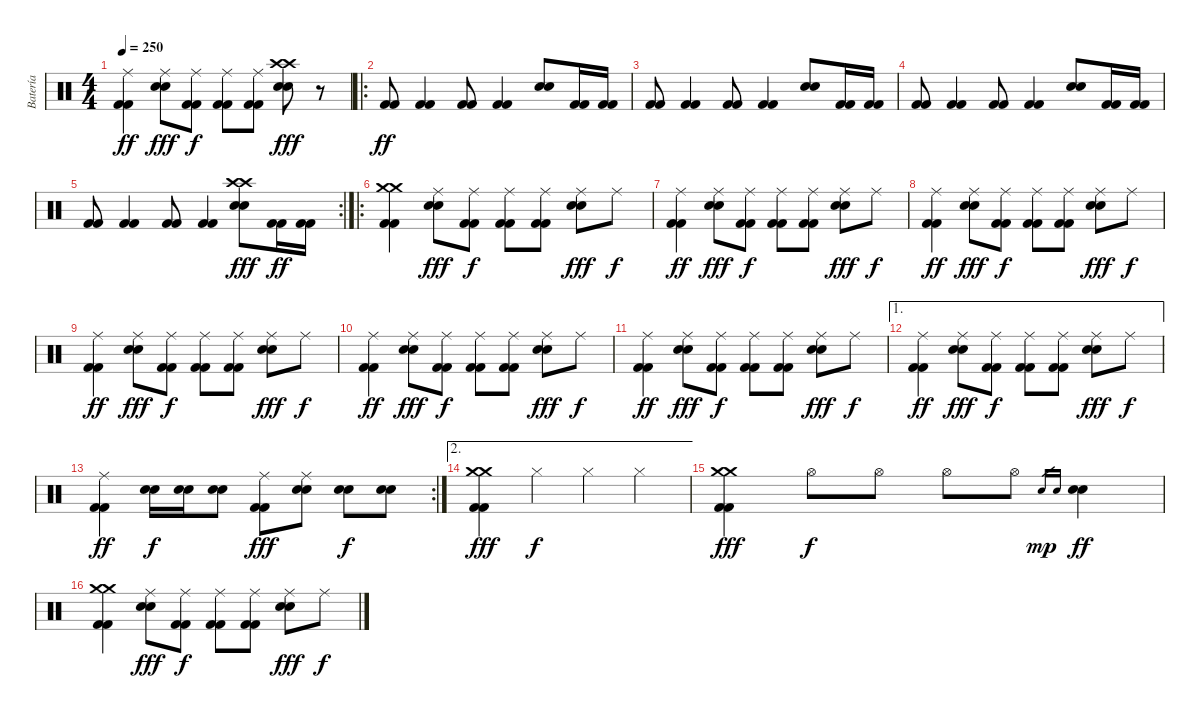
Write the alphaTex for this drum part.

\track ("Batería" "Batería") {instrument percussion}
\staff {score}
\articulation defaults
\ts (4 4)
\tempo 250
\clef neutral
\ks c
("Ride (middle)" "Kick (hit) 2" "Kick (hit) 2").4{dy ff} ("Ride (middle)" "Electric Snare (hit)" "Electric Snare (hit)").8{dy fff} ("Ride (middle)" "Kick (hit) 2" "Kick (hit) 2").8{dy f} ("Ride (middle)" "Kick (hit) 2" "Kick (hit) 2").8 ("Ride (middle)" "Kick (hit) 2" "Kick (hit) 2").8 ("Crash high (hit)" "Crash high (hit)" "Electric Snare (hit)" "Electric Snare (hit)").8{dy fff} r.8 |
\ro
("Kick (hit) 2" "Kick (hit) 2").8{dy ff} ("Kick (hit) 2" "Kick (hit) 2").4 ("Kick (hit) 2" "Kick (hit) 2").8 ("Kick (hit) 2" "Kick (hit) 2").4 ("Electric Snare (hit)" "Electric Snare (hit)").8 ("Kick (hit) 2" "Kick (hit) 2").16 ("Kick (hit) 2" "Kick (hit) 2").16 |
("Kick (hit) 2" "Kick (hit) 2").8 ("Kick (hit) 2" "Kick (hit) 2").4 ("Kick (hit) 2" "Kick (hit) 2").8 ("Kick (hit) 2" "Kick (hit) 2").4 ("Electric Snare (hit)" "Electric Snare (hit)").8 ("Kick (hit) 2" "Kick (hit) 2").16 ("Kick (hit) 2" "Kick (hit) 2").16 |
("Kick (hit) 2" "Kick (hit) 2").8 ("Kick (hit) 2" "Kick (hit) 2").4 ("Kick (hit) 2" "Kick (hit) 2").8 ("Kick (hit) 2" "Kick (hit) 2").4 ("Electric Snare (hit)" "Electric Snare (hit)").8 ("Kick (hit) 2" "Kick (hit) 2").16 ("Kick (hit) 2" "Kick (hit) 2").16 |
\rc 2
("Kick (hit) 2" "Kick (hit) 2").8 ("Kick (hit) 2" "Kick (hit) 2").4 ("Kick (hit) 2" "Kick (hit) 2").8 ("Kick (hit) 2" "Kick (hit) 2").4 ("Crash high (hit)" "Crash high (hit)" "Electric Snare (hit)" "Electric Snare (hit)").8{dy fff} ("Kick (hit) 2" "Kick (hit) 2").16{dy ff} ("Kick (hit) 2" "Kick (hit) 2").16 |
\ro
("Crash medium (hit)" "Crash medium (hit)" "Kick (hit) 2" "Kick (hit) 2").4 ("Ride (middle)" "Electric Snare (hit)" "Electric Snare (hit)").8{dy fff} ("Ride (middle)" "Kick (hit) 2" "Kick (hit) 2").8{dy f} ("Ride (middle)" "Kick (hit) 2" "Kick (hit) 2").8 ("Ride (middle)" "Kick (hit) 2" "Kick (hit) 2").8 ("Ride (middle)" "Electric Snare (hit)" "Electric Snare (hit)").8{dy fff} "Ride (middle)".8{dy f} |
("Ride (middle)" "Kick (hit) 2" "Kick (hit) 2").4{dy ff} ("Ride (middle)" "Electric Snare (hit)" "Electric Snare (hit)").8{dy fff} ("Ride (middle)" "Kick (hit) 2" "Kick (hit) 2").8{dy f} ("Ride (middle)" "Kick (hit) 2" "Kick (hit) 2").8 ("Ride (middle)" "Kick (hit) 2" "Kick (hit) 2").8 ("Ride (middle)" "Electric Snare (hit)" "Electric Snare (hit)").8{dy fff} "Ride (middle)".8{dy f} |
("Ride (middle)" "Kick (hit) 2" "Kick (hit) 2").4{dy ff} ("Ride (middle)" "Electric Snare (hit)" "Electric Snare (hit)").8{dy fff} ("Ride (middle)" "Kick (hit) 2" "Kick (hit) 2").8{dy f} ("Ride (middle)" "Kick (hit) 2" "Kick (hit) 2").8 ("Ride (middle)" "Kick (hit) 2" "Kick (hit) 2").8 ("Ride (middle)" "Electric Snare (hit)" "Electric Snare (hit)").8{dy fff} "Ride (middle)".8{dy f} |
("Ride (middle)" "Kick (hit) 2" "Kick (hit) 2").4{dy ff} ("Ride (middle)" "Electric Snare (hit)" "Electric Snare (hit)").8{dy fff} ("Ride (middle)" "Kick (hit) 2" "Kick (hit) 2").8{dy f} ("Ride (middle)" "Kick (hit) 2" "Kick (hit) 2").8 ("Ride (middle)" "Kick (hit) 2" "Kick (hit) 2").8 ("Ride (middle)" "Electric Snare (hit)" "Electric Snare (hit)").8{dy fff} "Ride (middle)".8{dy f} |
("Ride (middle)" "Kick (hit) 2" "Kick (hit) 2").4{dy ff} ("Ride (middle)" "Electric Snare (hit)" "Electric Snare (hit)").8{dy fff} ("Ride (middle)" "Kick (hit) 2" "Kick (hit) 2").8{dy f} ("Ride (middle)" "Kick (hit) 2" "Kick (hit) 2").8 ("Ride (middle)" "Kick (hit) 2" "Kick (hit) 2").8 ("Ride (middle)" "Electric Snare (hit)" "Electric Snare (hit)").8{dy fff} "Ride (middle)".8{dy f} |
("Ride (middle)" "Kick (hit) 2" "Kick (hit) 2").4{dy ff} ("Ride (middle)" "Electric Snare (hit)" "Electric Snare (hit)").8{dy fff} ("Ride (middle)" "Kick (hit) 2" "Kick (hit) 2").8{dy f} ("Ride (middle)" "Kick (hit) 2" "Kick (hit) 2").8 ("Ride (middle)" "Kick (hit) 2" "Kick (hit) 2").8 ("Ride (middle)" "Electric Snare (hit)" "Electric Snare (hit)").8{dy fff} "Ride (middle)".8{dy f} |
\ae 1
("Ride (middle)" "Kick (hit) 2" "Kick (hit) 2").4{dy ff} ("Ride (middle)" "Electric Snare (hit)" "Electric Snare (hit)").8{dy fff} ("Ride (middle)" "Kick (hit) 2" "Kick (hit) 2").8{dy f} ("Ride (middle)" "Kick (hit) 2" "Kick (hit) 2").8 ("Ride (middle)" "Kick (hit) 2" "Kick (hit) 2").8 ("Ride (middle)" "Electric Snare (hit)" "Electric Snare (hit)").8{dy fff} "Ride (middle)".8{dy f} |
\rc 2
("Ride (middle)" "Kick (hit) 2" "Kick (hit) 2").4{dy ff} ("Electric Snare (hit)" "Electric Snare (hit)").16{dy f} ("Electric Snare (hit)" "Electric Snare (hit)").16 ("Electric Snare (hit)" "Electric Snare (hit)").8 ("Ride (middle)" "Kick (hit) 2" "Kick (hit) 2").8{dy fff} ("Ride (middle)" "Electric Snare (hit)" "Electric Snare (hit)").8 ("Electric Snare (hit)" "Electric Snare (hit)").8{dy f} ("Electric Snare (hit)" "Electric Snare (hit)").8 |
\ae 2
("Crash medium (hit)" "Crash medium (hit)" "Kick (hit) 2" "Kick (hit) 2").4{dy fff} "Hi-Hat (closed)".4{dy f} "Hi-Hat (closed)".4 "Hi-Hat (closed)".4 |
("Crash medium (hit)" "Crash medium (hit)" "Kick (hit) 2" "Kick (hit) 2").4{dy fff} "Hi-Hat (open)".8{dy f} "Hi-Hat (open)".8 "Hi-Hat (open)".8 "Hi-Hat (open)".8 "Electric Snare (hit)".16{gr dy mp} "Electric Snare (hit)".16{gr} ("Electric Snare (hit)" "Electric Snare (hit)").4{dy ff} |
("Crash medium (hit)" "Crash medium (hit)" "Kick (hit) 2" "Kick (hit) 2").4 ("Ride (middle)" "Electric Snare (hit)" "Electric Snare (hit)").8{dy fff} ("Ride (middle)" "Kick (hit) 2" "Kick (hit) 2").8{dy f} ("Ride (middle)" "Kick (hit) 2" "Kick (hit) 2").8 ("Ride (middle)" "Kick (hit) 2" "Kick (hit) 2").8 ("Ride (middle)" "Electric Snare (hit)" "Electric Snare (hit)").8{dy fff} "Ride (middle)".8{dy f}
